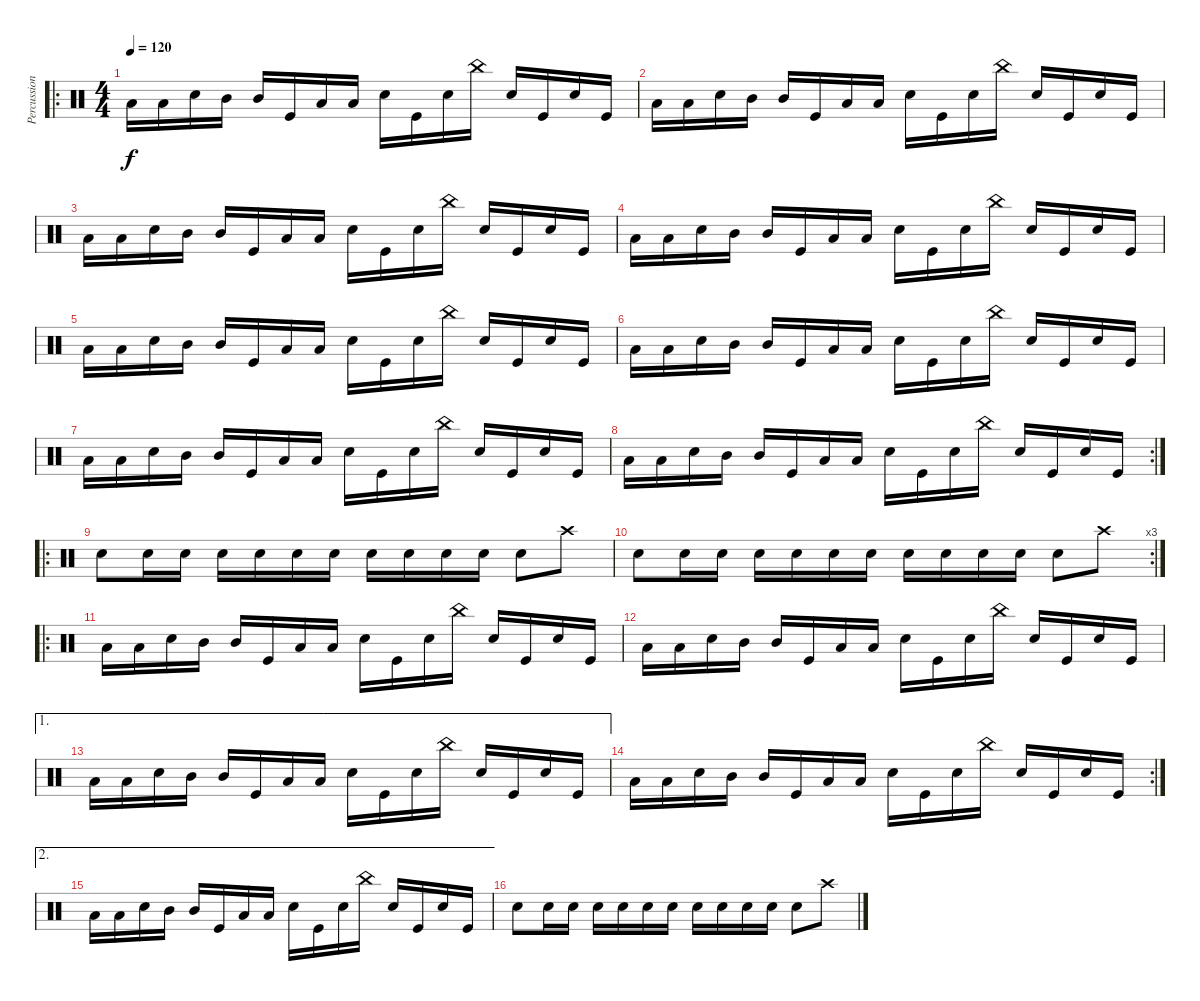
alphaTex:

\track ("Percussion" "Percussion") {instrument percussion}
\staff {score}
\articulation defaults
\ro
\ts (4 4)
\tempo 120
\clef neutral
\ks c "Low Tom (hit)".16{dy f} "Low Tom (hit)".16 "Electric Snare (hit)".16 "Mid Tom (hit)".16 "Mid Tom (hit)".16 "Kick (hit)".16 "Low Tom (hit)".16 "Low Tom (hit)".16 "Electric Snare (hit)".16 "Kick (hit)".16 "Electric Snare (hit)".16 "China (hit)".16 "Electric Snare (hit)".16 "Kick (hit)".16 "Electric Snare (hit)".16 "Kick (hit)".16
|
"Low Tom (hit)".16 "Low Tom (hit)".16 "Electric Snare (hit)".16 "Mid Tom (hit)".16 "Mid Tom (hit)".16 "Kick (hit)".16 "Low Tom (hit)".16 "Low Tom (hit)".16 "Electric Snare (hit)".16 "Kick (hit)".16 "Electric Snare (hit)".16 "China (hit)".16 "Electric Snare (hit)".16 "Kick (hit)".16 "Electric Snare (hit)".16 "Kick (hit)".16 |
"Low Tom (hit)".16 "Low Tom (hit)".16 "Electric Snare (hit)".16 "Mid Tom (hit)".16 "Mid Tom (hit)".16 "Kick (hit)".16 "Low Tom (hit)".16 "Low Tom (hit)".16 "Electric Snare (hit)".16 "Kick (hit)".16 "Electric Snare (hit)".16 "China (hit)".16 "Electric Snare (hit)".16 "Kick (hit)".16 "Electric Snare (hit)".16 "Kick (hit)".16 |
"Low Tom (hit)".16 "Low Tom (hit)".16 "Electric Snare (hit)".16 "Mid Tom (hit)".16 "Mid Tom (hit)".16 "Kick (hit)".16 "Low Tom (hit)".16 "Low Tom (hit)".16 "Electric Snare (hit)".16 "Kick (hit)".16 "Electric Snare (hit)".16 "China (hit)".16 "Electric Snare (hit)".16 "Kick (hit)".16 "Electric Snare (hit)".16 "Kick (hit)".16 |
"Low Tom (hit)".16 "Low Tom (hit)".16 "Electric Snare (hit)".16 "Mid Tom (hit)".16 "Mid Tom (hit)".16 "Kick (hit)".16 "Low Tom (hit)".16 "Low Tom (hit)".16 "Electric Snare (hit)".16 "Kick (hit)".16 "Electric Snare (hit)".16 "China (hit)".16 "Electric Snare (hit)".16 "Kick (hit)".16 "Electric Snare (hit)".16 "Kick (hit)".16 |
"Low Tom (hit)".16 "Low Tom (hit)".16 "Electric Snare (hit)".16 "Mid Tom (hit)".16 "Mid Tom (hit)".16 "Kick (hit)".16 "Low Tom (hit)".16 "Low Tom (hit)".16 "Electric Snare (hit)".16 "Kick (hit)".16 "Electric Snare (hit)".16 "China (hit)".16 "Electric Snare (hit)".16 "Kick (hit)".16 "Electric Snare (hit)".16 "Kick (hit)".16 |
"Low Tom (hit)".16 "Low Tom (hit)".16 "Electric Snare (hit)".16 "Mid Tom (hit)".16 "Mid Tom (hit)".16 "Kick (hit)".16 "Low Tom (hit)".16 "Low Tom (hit)".16 "Electric Snare (hit)".16 "Kick (hit)".16 "Electric Snare (hit)".16 "China (hit)".16 "Electric Snare (hit)".16 "Kick (hit)".16 "Electric Snare (hit)".16 "Kick (hit)".16 |
\rc 2 "Low Tom (hit)".16 "Low Tom (hit)".16 "Electric Snare (hit)".16 "Mid Tom (hit)".16 "Mid Tom (hit)".16 "Kick (hit)".16 "Low Tom (hit)".16 "Low Tom (hit)".16 "Electric Snare (hit)".16 "Kick (hit)".16 "Electric Snare (hit)".16 "China (hit)".16 "Electric Snare (hit)".16 "Kick (hit)".16 "Electric Snare (hit)".16 "Kick (hit)".16
|
\ro "Electric Snare (hit)".8 "Electric Snare (hit)".16 "Electric Snare (hit)".16 "Electric Snare (hit)".16 "Electric Snare (hit)".16 "Electric Snare (hit)".16 "Electric Snare (hit)".16 "Electric Snare (hit)".16 "Electric Snare (hit)".16 "Electric Snare (hit)".16 "Electric Snare (hit)".16 "Electric Snare (hit)".8 "Crash high (hit)".8
|
\rc 3 "Electric Snare (hit)".8 "Electric Snare (hit)".16 "Electric Snare (hit)".16 "Electric Snare (hit)".16 "Electric Snare (hit)".16 "Electric Snare (hit)".16 "Electric Snare (hit)".16 "Electric Snare (hit)".16 "Electric Snare (hit)".16 "Electric Snare (hit)".16 "Electric Snare (hit)".16 "Electric Snare (hit)".8 "Crash high (hit)".8
|
\ro "Low Tom (hit)".16 "Low Tom (hit)".16 "Electric Snare (hit)".16 "Mid Tom (hit)".16 "Mid Tom (hit)".16 "Kick (hit)".16 "Low Tom (hit)".16 "Low Tom (hit)".16 "Electric Snare (hit)".16 "Kick (hit)".16 "Electric Snare (hit)".16 "China (hit)".16 "Electric Snare (hit)".16 "Kick (hit)".16 "Electric Snare (hit)".16 "Kick (hit)".16
|
"Low Tom (hit)".16 "Low Tom (hit)".16 "Electric Snare (hit)".16 "Mid Tom (hit)".16 "Mid Tom (hit)".16 "Kick (hit)".16 "Low Tom (hit)".16 "Low Tom (hit)".16 "Electric Snare (hit)".16 "Kick (hit)".16 "Electric Snare (hit)".16 "China (hit)".16 "Electric Snare (hit)".16 "Kick (hit)".16 "Electric Snare (hit)".16 "Kick (hit)".16 |
\ae 1 "Low Tom (hit)".16 "Low Tom (hit)".16 "Electric Snare (hit)".16 "Mid Tom (hit)".16 "Mid Tom (hit)".16 "Kick (hit)".16 "Low Tom (hit)".16 "Low Tom (hit)".16 "Electric Snare (hit)".16 "Kick (hit)".16 "Electric Snare (hit)".16 "China (hit)".16 "Electric Snare (hit)".16 "Kick (hit)".16 "Electric Snare (hit)".16 "Kick (hit)".16
|
\rc 2 "Low Tom (hit)".16 "Low Tom (hit)".16 "Electric Snare (hit)".16 "Mid Tom (hit)".16 "Mid Tom (hit)".16 "Kick (hit)".16 "Low Tom (hit)".16 "Low Tom (hit)".16 "Electric Snare (hit)".16 "Kick (hit)".16 "Electric Snare (hit)".16 "China (hit)".16 "Electric Snare (hit)".16 "Kick (hit)".16 "Electric Snare (hit)".16 "Kick (hit)".16
|
\ae 2 "Low Tom (hit)".16 "Low Tom (hit)".16 "Electric Snare (hit)".16 "Mid Tom (hit)".16 "Mid Tom (hit)".16 "Kick (hit)".16 "Low Tom (hit)".16 "Low Tom (hit)".16 "Electric Snare (hit)".16 "Kick (hit)".16 "Electric Snare (hit)".16 "China (hit)".16 "Electric Snare (hit)".16 "Kick (hit)".16 "Electric Snare (hit)".16 "Kick (hit)".16
|
"Electric Snare (hit)".8 "Electric Snare (hit)".16 "Electric Snare (hit)".16 "Electric Snare (hit)".16 "Electric Snare (hit)".16 "Electric Snare (hit)".16 "Electric Snare (hit)".16 "Electric Snare (hit)".16 "Electric Snare (hit)".16 "Electric Snare (hit)".16 "Electric Snare (hit)".16 "Electric Snare (hit)".8 "Crash high (hit)".8
